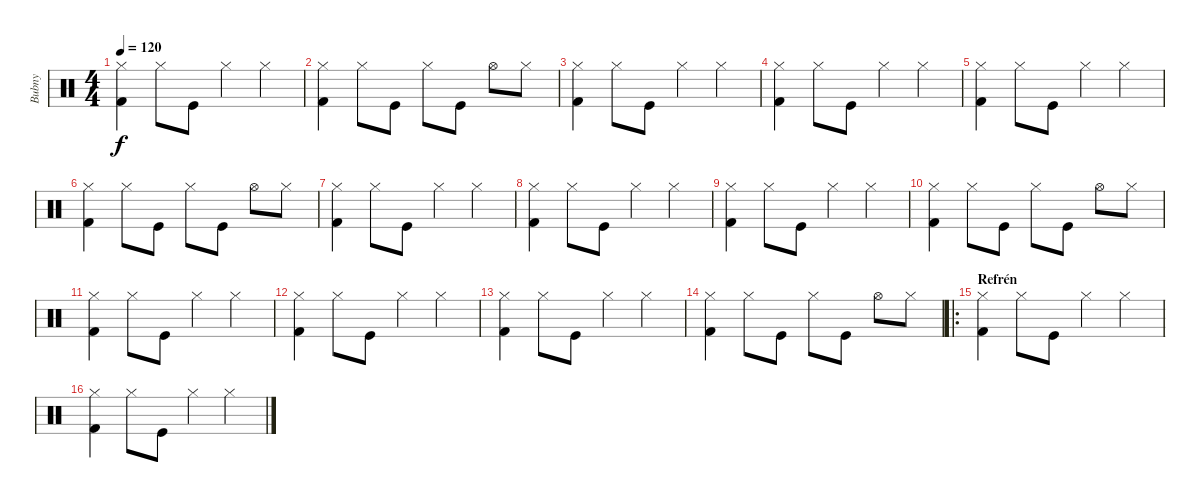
\track ("Bubny" "Bubny") {instrument percussion}
\staff {score}
\articulation defaults
\ts (4 4)
\tempo 120
\clef neutral
\ks c
("Hi-Hat (closed)" "Kick (hit) 2").4{dy f} "Hi-Hat (closed)".8 "Kick (hit)".8 "Hi-Hat (closed)".4 "Hi-Hat (closed)".4 |
("Hi-Hat (closed)" "Kick (hit) 2").4 "Hi-Hat (closed)".8 "Kick (hit)".8 "Hi-Hat (closed)".8 "Kick (hit)".8 "Hi-Hat (open)".8 "Hi-Hat (closed)".8 |
("Hi-Hat (closed)" "Kick (hit) 2").4 "Hi-Hat (closed)".8 "Kick (hit)".8 "Hi-Hat (closed)".4 "Hi-Hat (closed)".4 |
("Hi-Hat (closed)" "Kick (hit) 2").4 "Hi-Hat (closed)".8 "Kick (hit)".8 "Hi-Hat (closed)".4 "Hi-Hat (closed)".4 |
("Hi-Hat (closed)" "Kick (hit) 2").4 "Hi-Hat (closed)".8 "Kick (hit)".8 "Hi-Hat (closed)".4 "Hi-Hat (closed)".4 |
("Hi-Hat (closed)" "Kick (hit) 2").4 "Hi-Hat (closed)".8 "Kick (hit)".8 "Hi-Hat (closed)".8 "Kick (hit)".8 "Hi-Hat (open)".8 "Hi-Hat (closed)".8 |
("Hi-Hat (closed)" "Kick (hit) 2").4 "Hi-Hat (closed)".8 "Kick (hit)".8 "Hi-Hat (closed)".4 "Hi-Hat (closed)".4 |
("Hi-Hat (closed)" "Kick (hit) 2").4 "Hi-Hat (closed)".8 "Kick (hit)".8 "Hi-Hat (closed)".4 "Hi-Hat (closed)".4 |
("Hi-Hat (closed)" "Kick (hit) 2").4 "Hi-Hat (closed)".8 "Kick (hit)".8 "Hi-Hat (closed)".4 "Hi-Hat (closed)".4 |
("Hi-Hat (closed)" "Kick (hit) 2").4 "Hi-Hat (closed)".8 "Kick (hit)".8 "Hi-Hat (closed)".8 "Kick (hit)".8 "Hi-Hat (open)".8 "Hi-Hat (closed)".8 |
("Hi-Hat (closed)" "Kick (hit) 2").4 "Hi-Hat (closed)".8 "Kick (hit)".8 "Hi-Hat (closed)".4 "Hi-Hat (closed)".4 |
("Hi-Hat (closed)" "Kick (hit) 2").4 "Hi-Hat (closed)".8 "Kick (hit)".8 "Hi-Hat (closed)".4 "Hi-Hat (closed)".4 |
("Hi-Hat (closed)" "Kick (hit) 2").4 "Hi-Hat (closed)".8 "Kick (hit)".8 "Hi-Hat (closed)".4 "Hi-Hat (closed)".4 |
("Hi-Hat (closed)" "Kick (hit) 2").4 "Hi-Hat (closed)".8 "Kick (hit)".8 "Hi-Hat (closed)".8 "Kick (hit)".8 "Hi-Hat (open)".8 "Hi-Hat (closed)".8 |
\ro
\section ("" "Refrén")
("Hi-Hat (closed)" "Kick (hit) 2").4 "Hi-Hat (closed)".8 "Kick (hit)".8 "Hi-Hat (closed)".4 "Hi-Hat (closed)".4 |
("Hi-Hat (closed)" "Kick (hit) 2").4 "Hi-Hat (closed)".8 "Kick (hit)".8 "Hi-Hat (closed)".4 "Hi-Hat (closed)".4
